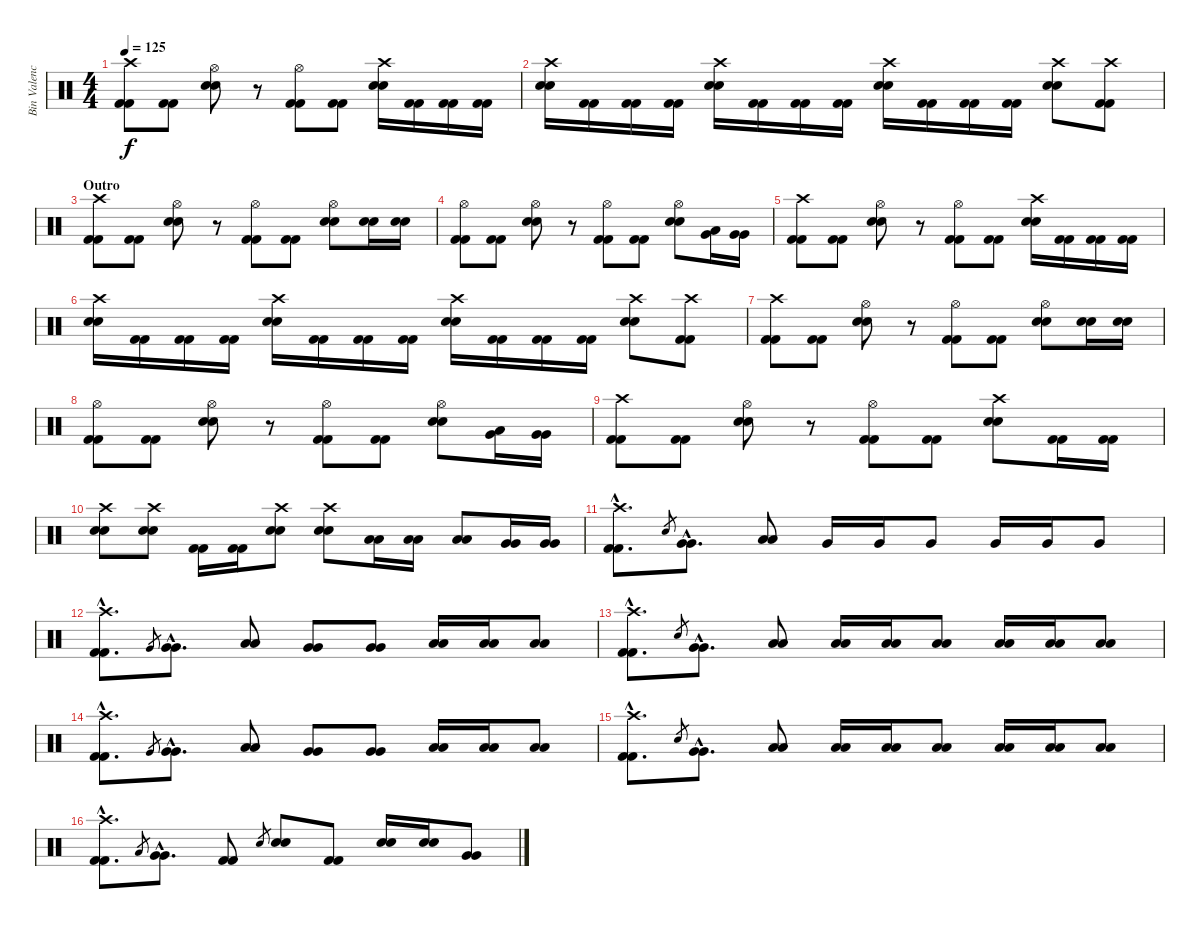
\track ("Bin Valencia (Bateria)" "Bin Valenc") {instrument percussion}
\staff {score}
\articulation defaults
\ts (4 4)
\tempo 125
\clef neutral
\ks c
("Crash high (hit)" "Kick (hit) 2" "Kick (hit) 2").8{dy f} ("Kick (hit) 2" "Kick (hit) 2").8 ("Hi-Hat (open)" "Snare (hit) 2" "Snare (hit) 2").8 r.8 ("Hi-Hat (open)" "Kick (hit) 2" "Kick (hit) 2").8 ("Kick (hit) 2" "Kick (hit) 2").8 ("Crash high (hit)" "Snare (hit) 2" "Snare (hit) 2").16 ("Kick (hit) 2" "Kick (hit) 2").16 ("Kick (hit) 2" "Kick (hit) 2").16 ("Kick (hit) 2" "Kick (hit) 2").16 |
("Crash high (hit)" "Snare (hit) 2" "Snare (hit) 2").16 ("Kick (hit) 2" "Kick (hit) 2").16 ("Kick (hit) 2" "Kick (hit) 2").16 ("Kick (hit) 2" "Kick (hit) 2").16 ("Crash high (hit)" "Snare (hit) 2" "Snare (hit) 2").16 ("Kick (hit) 2" "Kick (hit) 2").16 ("Kick (hit) 2" "Kick (hit) 2").16 ("Kick (hit) 2" "Kick (hit) 2").16 ("Crash high (hit)" "Snare (hit) 2" "Snare (hit) 2").16 ("Kick (hit) 2" "Kick (hit) 2").16 ("Kick (hit) 2" "Kick (hit) 2").16 ("Kick (hit) 2" "Kick (hit) 2").16 ("Crash high (hit)" "Snare (hit) 2" "Snare (hit) 2").8 ("Crash high (hit)" "Kick (hit) 2" "Kick (hit) 2").8 |
\section ("" "Outro")
("Crash high (hit)" "Kick (hit) 2" "Kick (hit) 2").8 ("Kick (hit) 2" "Kick (hit) 2").8 ("Hi-Hat (open)" "Snare (hit) 2" "Snare (hit) 2").8 r.8 ("Hi-Hat (open)" "Kick (hit) 2" "Kick (hit) 2").8 ("Kick (hit) 2" "Kick (hit) 2").8 ("Hi-Hat (open)" "Snare (hit) 2" "Snare (hit) 2").8 ("Snare (hit) 2" "Snare (hit) 2").16 ("Snare (hit) 2" "Snare (hit) 2").16 |
("Hi-Hat (open)" "Kick (hit) 2" "Kick (hit) 2").8 ("Kick (hit) 2" "Kick (hit) 2").8 ("Hi-Hat (open)" "Snare (hit) 2" "Snare (hit) 2").8 r.8 ("Hi-Hat (open)" "Kick (hit) 2" "Kick (hit) 2").8 ("Kick (hit) 2" "Kick (hit) 2").8 ("Hi-Hat (open)" "Snare (hit) 2" "Snare (hit) 2").8 ("Low Tom (hit)" "Very Low Tom (hit)").16 ("Very Low Tom (hit)" "Very Low Tom (hit)").16 |
("Crash high (hit)" "Kick (hit) 2" "Kick (hit) 2").8 ("Kick (hit) 2" "Kick (hit) 2").8 ("Hi-Hat (open)" "Snare (hit) 2" "Snare (hit) 2").8 r.8 ("Hi-Hat (open)" "Kick (hit) 2" "Kick (hit) 2").8 ("Kick (hit) 2" "Kick (hit) 2").8 ("Crash high (hit)" "Snare (hit) 2" "Snare (hit) 2").16 ("Kick (hit) 2" "Kick (hit) 2").16 ("Kick (hit) 2" "Kick (hit) 2").16 ("Kick (hit) 2" "Kick (hit) 2").16 |
("Crash high (hit)" "Snare (hit) 2" "Snare (hit) 2").16 ("Kick (hit) 2" "Kick (hit) 2").16 ("Kick (hit) 2" "Kick (hit) 2").16 ("Kick (hit) 2" "Kick (hit) 2").16 ("Crash high (hit)" "Snare (hit) 2" "Snare (hit) 2").16 ("Kick (hit) 2" "Kick (hit) 2").16 ("Kick (hit) 2" "Kick (hit) 2").16 ("Kick (hit) 2" "Kick (hit) 2").16 ("Crash high (hit)" "Snare (hit) 2" "Snare (hit) 2").16 ("Kick (hit) 2" "Kick (hit) 2").16 ("Kick (hit) 2" "Kick (hit) 2").16 ("Kick (hit) 2" "Kick (hit) 2").16 ("Crash high (hit)" "Snare (hit) 2" "Snare (hit) 2").8 ("Crash high (hit)" "Kick (hit) 2" "Kick (hit) 2").8 |
("Crash high (hit)" "Kick (hit) 2" "Kick (hit) 2").8 ("Kick (hit) 2" "Kick (hit) 2").8 ("Hi-Hat (open)" "Snare (hit) 2" "Snare (hit) 2").8 r.8 ("Hi-Hat (open)" "Kick (hit) 2" "Kick (hit) 2").8 ("Kick (hit) 2" "Kick (hit) 2").8 ("Hi-Hat (open)" "Snare (hit) 2" "Snare (hit) 2").8 ("Snare (hit) 2" "Snare (hit) 2").16 ("Snare (hit) 2" "Snare (hit) 2").16 |
("Hi-Hat (open)" "Kick (hit) 2" "Kick (hit) 2").8 ("Kick (hit) 2" "Kick (hit) 2").8 ("Hi-Hat (open)" "Snare (hit) 2" "Snare (hit) 2").8 r.8 ("Hi-Hat (open)" "Kick (hit) 2" "Kick (hit) 2").8 ("Kick (hit) 2" "Kick (hit) 2").8 ("Hi-Hat (open)" "Snare (hit) 2" "Snare (hit) 2").8 ("Low Tom (hit)" "Very Low Tom (hit)").16 ("Very Low Tom (hit)" "Very Low Tom (hit)").16 |
("Crash high (hit)" "Kick (hit) 2" "Kick (hit) 2").8 ("Kick (hit) 2" "Kick (hit) 2").8 ("Hi-Hat (open)" "Snare (hit) 2" "Snare (hit) 2").8 r.8 ("Hi-Hat (open)" "Kick (hit) 2" "Kick (hit) 2").8 ("Kick (hit) 2" "Kick (hit) 2").8 ("Crash high (hit)" "Snare (hit) 2" "Snare (hit) 2").8 ("Kick (hit) 2" "Kick (hit) 2").16 ("Kick (hit) 2" "Kick (hit) 2").16 |
("Crash high (hit)" "Snare (hit) 2" "Snare (hit) 2").8 ("Crash high (hit)" "Snare (hit) 2" "Snare (hit) 2").8 ("Kick (hit) 2" "Kick (hit) 2").16 ("Kick (hit) 2" "Kick (hit) 2").16 ("Crash high (hit)" "Snare (hit) 2" "Snare (hit) 2").8 ("Crash high (hit)" "Snare (hit) 2" "Snare (hit) 2").8 ("Low Tom (hit)" "Low Tom (hit)").16 ("Low Tom (hit)" "Low Tom (hit)").16 ("Low Tom (hit)" "Low Tom (hit)").8 ("Very Low Tom (hit)" "Very Low Tom (hit)").16 ("Very Low Tom (hit)" "Very Low Tom (hit)").16 |
("Crash high (hit)"{hac} "Kick (hit) 2"{hac} "Kick (hit) 2"{hac}).8{d} "Metronome (bell)".8{gr} ("Very Low Tom (hit)"{hac} "Very Low Tom (hit)"{hac}).8{d} ("Low Tom (hit)" "Low Tom (hit)").8 "Very Low Tom (hit)".16 "Very Low Tom (hit)".16 "Very Low Tom (hit)".8 "Very Low Tom (hit)".16 "Very Low Tom (hit)".16 "Very Low Tom (hit)".8 |
("Crash high (hit)"{hac} "Kick (hit) 2"{hac} "Kick (hit) 2"{hac}).8{d} "Very Low Tom (hit)".8{gr} ("Very Low Tom (hit)"{hac} "Very Low Tom (hit)"{hac}).8{d} ("Low Tom (hit)" "Low Tom (hit)").8 ("Very Low Tom (hit)" "Very Low Tom (hit)").8 ("Very Low Tom (hit)" "Very Low Tom (hit)").8 ("Low Floor Tom (hit)" "Low Floor Tom (hit)").16 ("Low Floor Tom (hit)" "Low Floor Tom (hit)").16 ("Low Floor Tom (hit)" "Low Floor Tom (hit)").8 |
("Crash high (hit)"{hac} "Kick (hit) 2"{hac} "Kick (hit) 2"{hac}).8{d} "Metronome (bell)".8{gr} ("Very Low Tom (hit)"{hac} "Very Low Tom (hit)"{hac}).8{d} ("Low Tom (hit)" "Low Tom (hit)").8 ("Low Floor Tom (hit)" "Low Floor Tom (hit)").16 ("Low Floor Tom (hit)" "Low Floor Tom (hit)").16 ("Low Floor Tom (hit)" "Low Floor Tom (hit)").8 ("Low Floor Tom (hit)" "Low Floor Tom (hit)").16 ("Low Floor Tom (hit)" "Low Floor Tom (hit)").16 ("Low Floor Tom (hit)" "Low Floor Tom (hit)").8 |
("Crash high (hit)"{hac} "Kick (hit) 2"{hac} "Kick (hit) 2"{hac}).8{d} "Very Low Tom (hit)".8{gr} ("Very Low Tom (hit)"{hac} "Very Low Tom (hit)"{hac}).8{d} ("Low Tom (hit)" "Low Tom (hit)").8 ("Very Low Tom (hit)" "Very Low Tom (hit)").8 ("Very Low Tom (hit)" "Very Low Tom (hit)").8 ("Low Floor Tom (hit)" "Low Floor Tom (hit)").16 ("Low Floor Tom (hit)" "Low Floor Tom (hit)").16 ("Low Floor Tom (hit)" "Low Floor Tom (hit)").8 |
("Crash high (hit)"{hac} "Kick (hit) 2"{hac} "Kick (hit) 2"{hac}).8{d} "Metronome (bell)".8{gr} ("Very Low Tom (hit)"{hac} "Very Low Tom (hit)"{hac}).8{d} ("Low Tom (hit)" "Low Tom (hit)").8 ("Low Floor Tom (hit)" "Low Floor Tom (hit)").16 ("Low Floor Tom (hit)" "Low Floor Tom (hit)").16 ("Low Floor Tom (hit)" "Low Floor Tom (hit)").8 ("Low Floor Tom (hit)" "Low Floor Tom (hit)").16 ("Low Floor Tom (hit)" "Low Floor Tom (hit)").16 ("Low Floor Tom (hit)" "Low Floor Tom (hit)").8 |
("Crash high (hit)"{hac} "Kick (hit) 2"{hac} "Kick (hit) 2"{hac}).8{d} "Low Tom (hit)".8{gr} ("Very Low Tom (hit)"{hac} "Very Low Tom (hit)"{hac}).8{d} ("Kick (hit) 2" "Kick (hit) 2").8 "Snare (hit) 2".8{gr} ("Snare (hit) 2" "Snare (hit) 2").8 ("Kick (hit) 2" "Kick (hit) 2").8 ("Snare (hit) 2" "Snare (hit) 2").16 ("Snare (hit) 2" "Snare (hit) 2").16 ("Very Low Tom (hit)" "Very Low Tom (hit)").8
